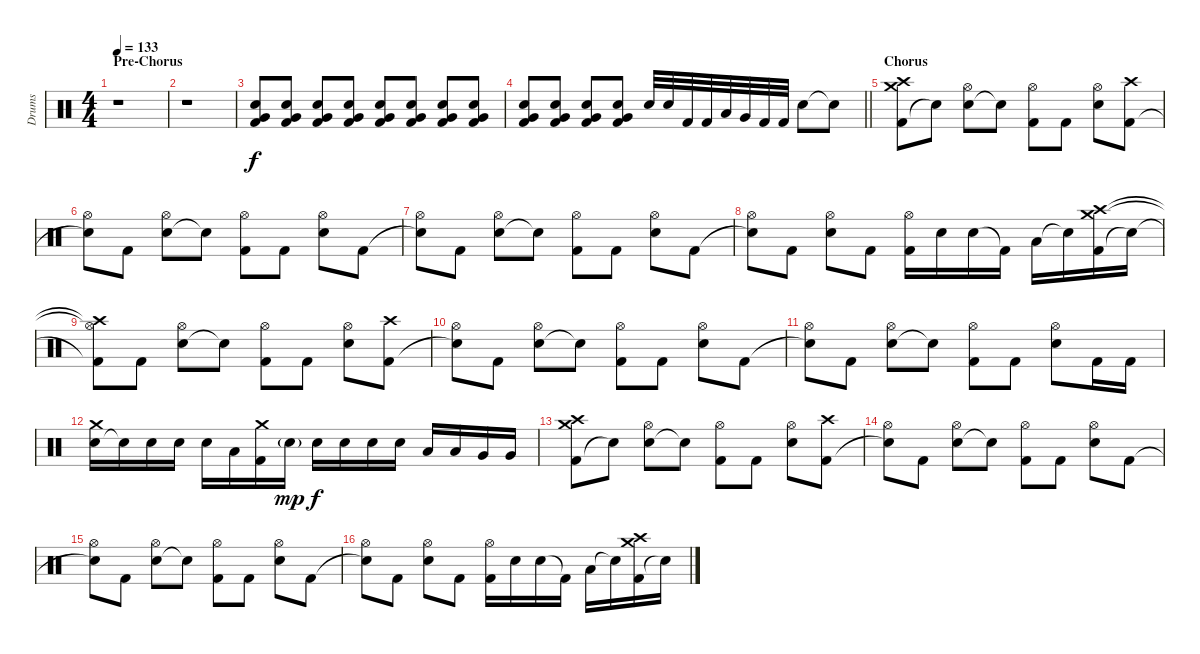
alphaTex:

\track ("Drums" "Drums") {instrument percussion}
\staff {score}
\articulation defaults
\ts (4 4)
\section ("" "Pre-Chorus")
\tempo 133
\clef neutral
\ks c
r.1{dy f} |
r.1{volume 0} |
("Kick (hit) 2" "Very Low Tom (hit)" "Electric Snare (hit)").8{volume 13} ("Kick (hit) 2" "Very Low Tom (hit)" "Electric Snare (hit)").8 ("Kick (hit) 2" "Very Low Tom (hit)" "Electric Snare (hit)").8 ("Kick (hit) 2" "Very Low Tom (hit)" "Electric Snare (hit)").8 ("Kick (hit) 2" "Very Low Tom (hit)" "Electric Snare (hit)").8 ("Kick (hit) 2" "Very Low Tom (hit)" "Electric Snare (hit)").8 ("Kick (hit) 2" "Very Low Tom (hit)" "Electric Snare (hit)").8 ("Kick (hit) 2" "Very Low Tom (hit)" "Electric Snare (hit)").8 |
\barLineRight lightlight
("Kick (hit) 2" "Very Low Tom (hit)" "Electric Snare (hit)").8 ("Kick (hit) 2" "Very Low Tom (hit)" "Electric Snare (hit)").8 ("Kick (hit) 2" "Very Low Tom (hit)" "Electric Snare (hit)").8 ("Kick (hit) 2" "Very Low Tom (hit)" "Electric Snare (hit)").8 "Electric Snare (hit)".32 "Electric Snare (hit)".32 "Kick (hit) 2".32 "Kick (hit) 2".32 "Low Tom (hit)".32 "Very Low Tom (hit)".32 "Kick (hit) 2".32 "Kick (hit) 2".32 "Electric Snare (hit)".8 "Snare (hit)"{t}.8 |
\section ("" "Chorus")
("Kick (hit) 2" "Crash medium (hit)" "Crash high (hit)").8 "Snare (hit)"{t}.8 ("Electric Snare (hit)" "Hi-Hat (open)").8 "Snare (hit)"{t}.8 ("Kick (hit) 2" "Hi-Hat (open)").8 "Kick (hit) 2".8 ("Electric Snare (hit)" "Hi-Hat (open)").8 ("Kick (hit) 2" "Crash high (hit)").8 |
("Snare (hit)"{t} "Hi-Hat (open)").8 "Kick (hit) 2".8 ("Electric Snare (hit)" "Hi-Hat (open)").8 "Snare (hit)"{t}.8 ("Kick (hit) 2" "Hi-Hat (open)").8 "Kick (hit) 2".8 ("Electric Snare (hit)" "Hi-Hat (open)").8 "Kick (hit) 2".8 |
("Snare (hit)"{t} "Hi-Hat (open)").8 "Kick (hit) 2".8 ("Electric Snare (hit)" "Hi-Hat (open)").8 "Snare (hit)"{t}.8 ("Kick (hit) 2" "Hi-Hat (open)").8 "Kick (hit) 2".8 ("Electric Snare (hit)" "Hi-Hat (open)").8 "Kick (hit) 2".8 |
("Snare (hit)"{t} "Hi-Hat (open)").8 "Kick (hit) 2".8 ("Electric Snare (hit)" "Hi-Hat (open)").8 "Kick (hit) 2".8 ("Kick (hit) 2" "Hi-Hat (open)").16 "Electric Snare (hit)".16 "Electric Snare (hit)".16 "Kick (hit) 2"{t}.16 "Low Tom (hit)".16 "Snare (hit)"{t}.16 ("Kick (hit) 2" "Crash medium (hit)" "Crash high (hit)").16 "Snare (hit)"{t}.16 |
("Kick (hit) 2"{t} "Hi-Hat (open)"{t} "Crash high (hit)"{t}).8 "Kick (hit) 2".8 ("Electric Snare (hit)" "Hi-Hat (open)").8 "Snare (hit)"{t}.8 ("Kick (hit) 2" "Hi-Hat (open)").8 "Kick (hit) 2".8 ("Electric Snare (hit)" "Hi-Hat (open)").8 ("Kick (hit) 2" "Crash high (hit)").8 |
("Snare (hit)"{t} "Hi-Hat (open)").8 "Kick (hit) 2".8 ("Electric Snare (hit)" "Hi-Hat (open)").8 "Snare (hit)"{t}.8 ("Kick (hit) 2" "Hi-Hat (open)").8 "Kick (hit) 2".8 ("Electric Snare (hit)" "Hi-Hat (open)").8 "Kick (hit) 2".8 |
("Snare (hit)"{t} "Hi-Hat (open)").8 "Kick (hit) 2".8 ("Electric Snare (hit)" "Hi-Hat (open)").8 "Snare (hit)"{t}.8 ("Kick (hit) 2" "Hi-Hat (open)").8 "Kick (hit) 2".8 ("Electric Snare (hit)" "Hi-Hat (open)").8 "Kick (hit) 2".16 "Kick (hit) 2".16 |
("Electric Snare (hit)" "Crash medium (hit)").16 "Snare (hit)"{t}.16 "Electric Snare (hit)".16 "Electric Snare (hit)".16 "Electric Snare (hit)".16 "Low Tom (hit)".16 ("Kick (hit) 2" "Crash medium (hit)").16 "Electric Snare (hit)"{g}.16{dy mp} "Electric Snare (hit)".16{dy f} "Electric Snare (hit)".16 "Electric Snare (hit)".16 "Electric Snare (hit)".16 "Low Tom (hit)".16 "Low Tom (hit)".16 "Very Low Tom (hit)".16 "Very Low Tom (hit)".16 |
("Kick (hit) 2" "Crash medium (hit)" "Crash high (hit)").8 "Snare (hit)"{t}.8 ("Electric Snare (hit)" "Hi-Hat (open)").8 "Snare (hit)"{t}.8 ("Kick (hit) 2" "Hi-Hat (open)").8 "Kick (hit) 2".8 ("Electric Snare (hit)" "Hi-Hat (open)").8 ("Kick (hit) 2" "Crash high (hit)").8 |
("Snare (hit)"{t} "Hi-Hat (open)").8 "Kick (hit) 2".8 ("Electric Snare (hit)" "Hi-Hat (open)").8 "Snare (hit)"{t}.8 ("Kick (hit) 2" "Hi-Hat (open)").8 "Kick (hit) 2".8 ("Electric Snare (hit)" "Hi-Hat (open)").8 "Kick (hit) 2".8 |
("Snare (hit)"{t} "Hi-Hat (open)").8 "Kick (hit) 2".8 ("Electric Snare (hit)" "Hi-Hat (open)").8 "Snare (hit)"{t}.8 ("Kick (hit) 2" "Hi-Hat (open)").8 "Kick (hit) 2".8 ("Electric Snare (hit)" "Hi-Hat (open)").8 "Kick (hit) 2".8 |
("Snare (hit)"{t} "Hi-Hat (open)").8 "Kick (hit) 2".8 ("Electric Snare (hit)" "Hi-Hat (open)").8 "Kick (hit) 2".8 ("Kick (hit) 2" "Hi-Hat (open)").16 "Electric Snare (hit)".16 "Electric Snare (hit)".16 "Kick (hit) 2"{t}.16 "Low Tom (hit)".16 "Snare (hit)"{t}.16 ("Kick (hit) 2" "Crash medium (hit)" "Crash high (hit)").16 "Snare (hit)"{t}.16
